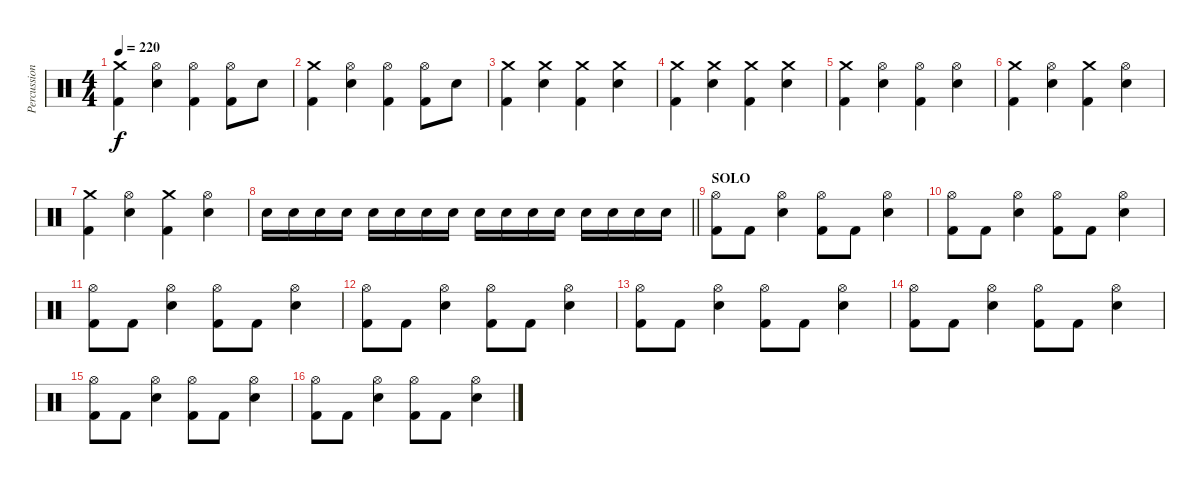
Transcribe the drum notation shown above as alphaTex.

\track ("Percussion" "Percussion") {instrument percussion}
\staff {score}
\articulation defaults
\ts (4 4)
\tempo 220
\clef neutral
\ks c
("Crash medium (hit)" "Kick (hit) 2").4{dy f} ("Hi-Hat (open)" "Snare (hit) 2").4 ("Hi-Hat (open)" "Kick (hit) 2").4 ("Hi-Hat (open)" "Kick (hit) 2").8 "Snare (hit) 2".8 |
("Crash medium (hit)" "Kick (hit) 2").4 ("Hi-Hat (open)" "Snare (hit) 2").4 ("Hi-Hat (open)" "Kick (hit) 2").4 ("Hi-Hat (open)" "Kick (hit) 2").8 "Snare (hit) 2".8 |
("Crash medium (hit)" "Kick (hit) 2").4 ("Crash medium (hit)" "Snare (hit) 2").4 ("Crash medium (hit)" "Kick (hit) 2").4 ("Crash medium (hit)" "Snare (hit) 2").4 |
("Crash medium (hit)" "Kick (hit) 2").4 ("Crash medium (hit)" "Snare (hit) 2").4 ("Crash medium (hit)" "Kick (hit) 2").4 ("Crash medium (hit)" "Snare (hit) 2").4 |
("Crash medium (hit)" "Kick (hit) 2").4 ("Hi-Hat (open)" "Snare (hit) 2").4 ("Hi-Hat (open)" "Kick (hit) 2").4 ("Hi-Hat (open)" "Snare (hit) 2").4 |
("Crash medium (hit)" "Kick (hit) 2").4 ("Hi-Hat (open)" "Snare (hit) 2").4 ("Crash medium (hit)" "Kick (hit) 2").4 ("Hi-Hat (open)" "Snare (hit) 2").4 |
("Crash medium (hit)" "Kick (hit) 2").4 ("Hi-Hat (open)" "Snare (hit) 2").4 ("Crash medium (hit)" "Kick (hit) 2").4 ("Hi-Hat (open)" "Snare (hit) 2").4 |
\barLineRight lightlight "Snare (hit) 2".16 "Snare (hit) 2".16 "Snare (hit) 2".16 "Snare (hit) 2".16 "Snare (hit) 2".16 "Snare (hit) 2".16 "Snare (hit) 2".16 "Snare (hit) 2".16 "Snare (hit) 2".16 "Snare (hit) 2".16 "Snare (hit) 2".16 "Snare (hit) 2".16 "Snare (hit) 2".16 "Snare (hit) 2".16 "Snare (hit) 2".16 "Snare (hit) 2".16
|
\section ("" "SOLO")
("Hi-Hat (open)" "Kick (hit) 2").8 "Kick (hit) 2".8 ("Hi-Hat (open)" "Snare (hit) 2").4 ("Hi-Hat (open)" "Kick (hit) 2").8 "Kick (hit) 2".8 ("Hi-Hat (open)" "Snare (hit) 2").4 |
("Hi-Hat (open)" "Kick (hit) 2").8 "Kick (hit) 2".8 ("Hi-Hat (open)" "Snare (hit) 2").4 ("Hi-Hat (open)" "Kick (hit) 2").8 "Kick (hit) 2".8 ("Hi-Hat (open)" "Snare (hit) 2").4 |
("Hi-Hat (open)" "Kick (hit) 2").8 "Kick (hit) 2".8 ("Hi-Hat (open)" "Snare (hit) 2").4 ("Hi-Hat (open)" "Kick (hit) 2").8 "Kick (hit) 2".8 ("Hi-Hat (open)" "Snare (hit) 2").4 |
("Hi-Hat (open)" "Kick (hit) 2").8 "Kick (hit) 2".8 ("Hi-Hat (open)" "Snare (hit) 2").4 ("Hi-Hat (open)" "Kick (hit) 2").8 "Kick (hit) 2".8 ("Hi-Hat (open)" "Snare (hit) 2").4 |
("Hi-Hat (open)" "Kick (hit) 2").8 "Kick (hit) 2".8 ("Hi-Hat (open)" "Snare (hit) 2").4 ("Hi-Hat (open)" "Kick (hit) 2").8 "Kick (hit) 2".8 ("Hi-Hat (open)" "Snare (hit) 2").4 |
("Hi-Hat (open)" "Kick (hit) 2").8 "Kick (hit) 2".8 ("Hi-Hat (open)" "Snare (hit) 2").4 ("Hi-Hat (open)" "Kick (hit) 2").8 "Kick (hit) 2".8 ("Hi-Hat (open)" "Snare (hit) 2").4 |
("Hi-Hat (open)" "Kick (hit) 2").8 "Kick (hit) 2".8 ("Hi-Hat (open)" "Snare (hit) 2").4 ("Hi-Hat (open)" "Kick (hit) 2").8 "Kick (hit) 2".8 ("Hi-Hat (open)" "Snare (hit) 2").4 |
("Hi-Hat (open)" "Kick (hit) 2").8 "Kick (hit) 2".8 ("Hi-Hat (open)" "Snare (hit) 2").4 ("Hi-Hat (open)" "Kick (hit) 2").8 "Kick (hit) 2".8 ("Hi-Hat (open)" "Snare (hit) 2").4
